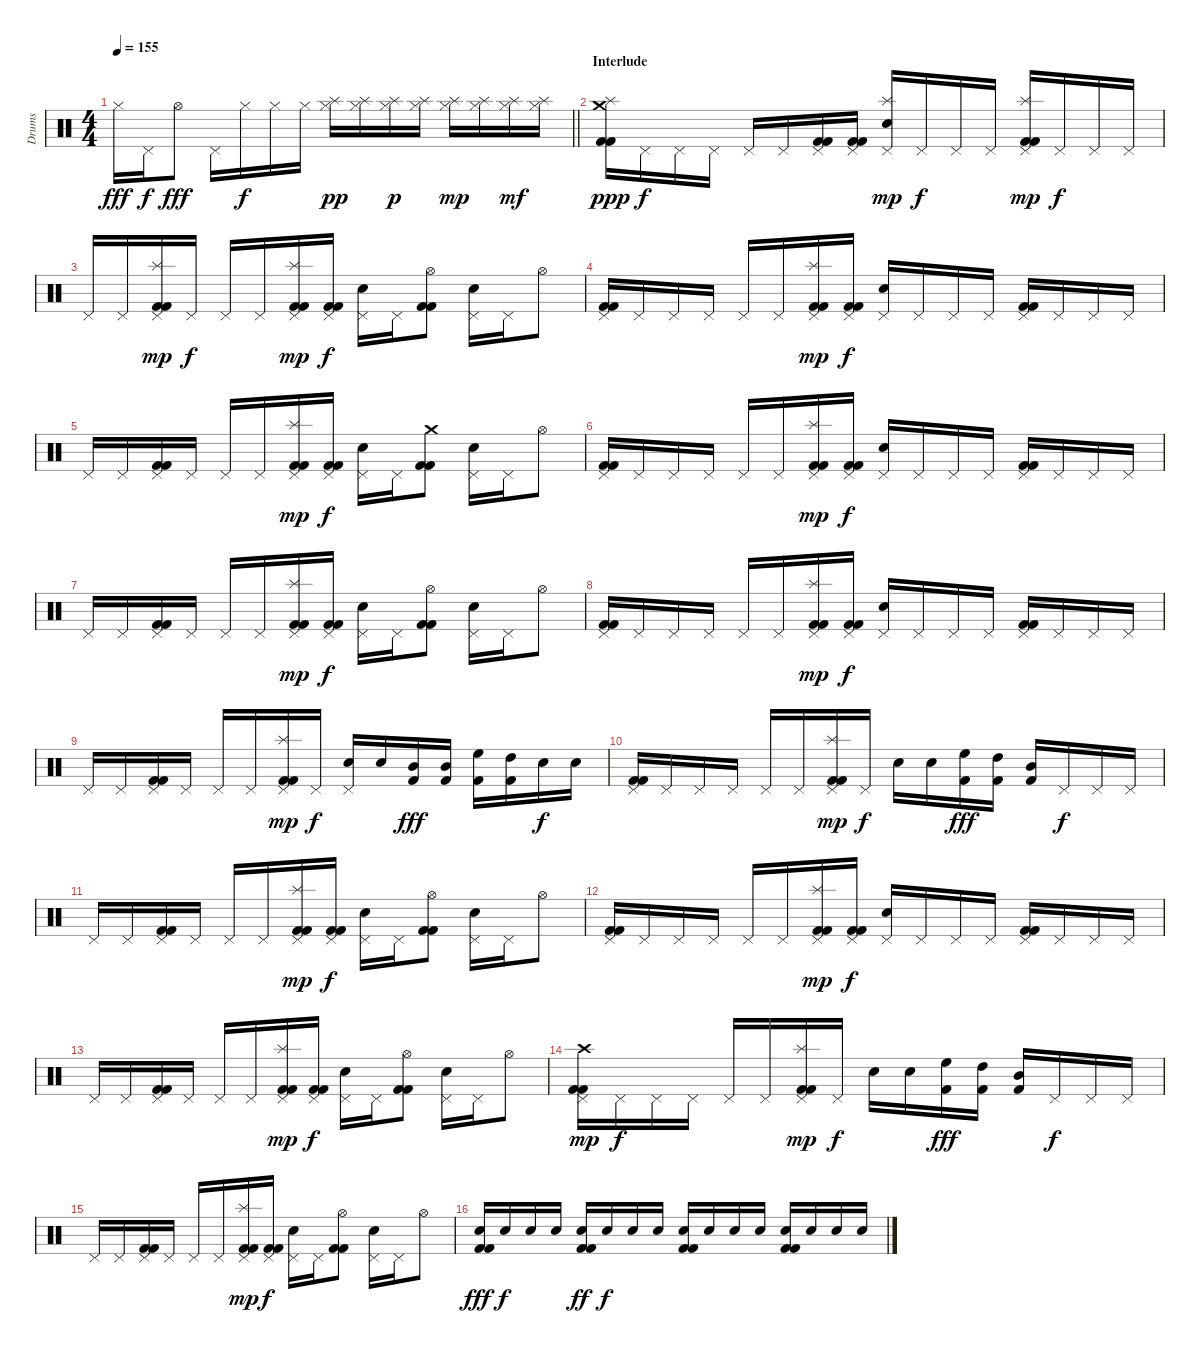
\track ("Drums" "Drums") {instrument percussion}
\staff {score}
\articulation defaults
\ts (4 4)
\tempo 155
\clef neutral
\barLineRight lightlight
\ks c "Hi-Hat (closed)".16{dy fff} "Pedal Hi-Hat (hit)".16{dy f} "Hi-Hat (open)".8{dy fff} "Pedal Hi-Hat (hit)".16 "Hi-Hat (closed)".16{dy f} "Hi-Hat (closed)".16 "Hi-Hat (closed)".16
("Hi-Hat (closed)" "Splash (hit)").16{dy pp} ("Hi-Hat (closed)" "Splash (hit)").16 ("Hi-Hat (closed)" "Splash (hit)").16{dy p} ("Hi-Hat (closed)" "Splash (hit)").16 ("Hi-Hat (closed)" "Splash (hit)").16{dy mp} ("Hi-Hat (closed)" "Splash (hit)").16 ("Hi-Hat (closed)" "Splash (hit)").16{dy mf} ("Hi-Hat (closed)" "Splash (hit)").16 |
\section ("" "Interlude")
("Crash medium (hit)" "Splash (hit)" "Kick (hit) 2" "Kick (hit) 2").16{dy ppp} "Pedal Hi-Hat (hit)".16{dy f} "Pedal Hi-Hat (hit)".16 "Pedal Hi-Hat (hit)".16 "Pedal Hi-Hat (hit)".16 "Pedal Hi-Hat (hit)".16 ("Pedal Hi-Hat (hit)" "Kick (hit) 2" "Kick (hit) 2").16 ("Pedal Hi-Hat (hit)" "Kick (hit) 2" "Kick (hit) 2").16 ("Pedal Hi-Hat (hit)" "Splash (hit)" "Electric Snare (hit)").16{dy mp} "Pedal Hi-Hat (hit)".16{dy f} "Pedal Hi-Hat (hit)".16 "Pedal Hi-Hat (hit)".16 ("Pedal Hi-Hat (hit)" "Splash (hit)" "Kick (hit) 2" "Kick (hit) 2").16{dy mp} "Pedal Hi-Hat (hit)".16{dy f} "Pedal Hi-Hat (hit)".16 "Pedal Hi-Hat (hit)".16 |
"Pedal Hi-Hat (hit)".16 "Pedal Hi-Hat (hit)".16 ("Pedal Hi-Hat (hit)" "Splash (hit)" "Kick (hit) 2" "Kick (hit) 2").16{dy mp} "Pedal Hi-Hat (hit)".16{dy f} "Pedal Hi-Hat (hit)".16 "Pedal Hi-Hat (hit)".16 ("Pedal Hi-Hat (hit)" "Splash (hit)" "Kick (hit) 2" "Kick (hit) 2").16{dy mp} ("Pedal Hi-Hat (hit)" "Kick (hit) 2" "Kick (hit) 2").16{dy f} ("Pedal Hi-Hat (hit)" "Electric Snare (hit)").16 "Pedal Hi-Hat (hit)".16 ("Hi-Hat (open)" "Kick (hit) 2" "Kick (hit) 2").8 ("Pedal Hi-Hat (hit)" "Electric Snare (hit)").16 "Pedal Hi-Hat (hit)".16 "Hi-Hat (open)".8 |
("Pedal Hi-Hat (hit)" "Kick (hit) 2" "Kick (hit) 2").16 "Pedal Hi-Hat (hit)".16 "Pedal Hi-Hat (hit)".16 "Pedal Hi-Hat (hit)".16 "Pedal Hi-Hat (hit)".16 "Pedal Hi-Hat (hit)".16 ("Pedal Hi-Hat (hit)" "Splash (hit)" "Kick (hit) 2" "Kick (hit) 2").16{dy mp} ("Pedal Hi-Hat (hit)" "Kick (hit) 2" "Kick (hit) 2").16{dy f} ("Pedal Hi-Hat (hit)" "Electric Snare (hit)").16 "Pedal Hi-Hat (hit)".16 "Pedal Hi-Hat (hit)".16 "Pedal Hi-Hat (hit)".16 ("Pedal Hi-Hat (hit)" "Kick (hit) 2" "Kick (hit) 2").16 "Pedal Hi-Hat (hit)".16 "Pedal Hi-Hat (hit)".16 "Pedal Hi-Hat (hit)".16 |
"Pedal Hi-Hat (hit)".16 "Pedal Hi-Hat (hit)".16 ("Pedal Hi-Hat (hit)" "Kick (hit) 2" "Kick (hit) 2").16 "Pedal Hi-Hat (hit)".16 "Pedal Hi-Hat (hit)".16 "Pedal Hi-Hat (hit)".16 ("Pedal Hi-Hat (hit)" "Splash (hit)" "Kick (hit) 2" "Kick (hit) 2").16{dy mp} ("Pedal Hi-Hat (hit)" "Kick (hit) 2" "Kick (hit) 2").16{dy f} ("Pedal Hi-Hat (hit)" "Electric Snare (hit)").16 "Pedal Hi-Hat (hit)".16 ("Crash medium (hit)" "Kick (hit) 2" "Kick (hit) 2").8 ("Pedal Hi-Hat (hit)" "Electric Snare (hit)").16 "Pedal Hi-Hat (hit)".16 "Hi-Hat (open)".8 |
("Pedal Hi-Hat (hit)" "Kick (hit) 2" "Kick (hit) 2").16 "Pedal Hi-Hat (hit)".16 "Pedal Hi-Hat (hit)".16 "Pedal Hi-Hat (hit)".16 "Pedal Hi-Hat (hit)".16 "Pedal Hi-Hat (hit)".16 ("Pedal Hi-Hat (hit)" "Splash (hit)" "Kick (hit) 2" "Kick (hit) 2").16{dy mp} ("Pedal Hi-Hat (hit)" "Kick (hit) 2" "Kick (hit) 2").16{dy f} ("Pedal Hi-Hat (hit)" "Electric Snare (hit)").16 "Pedal Hi-Hat (hit)".16 "Pedal Hi-Hat (hit)".16 "Pedal Hi-Hat (hit)".16 ("Pedal Hi-Hat (hit)" "Kick (hit) 2" "Kick (hit) 2").16 "Pedal Hi-Hat (hit)".16 "Pedal Hi-Hat (hit)".16 "Pedal Hi-Hat (hit)".16 |
"Pedal Hi-Hat (hit)".16 "Pedal Hi-Hat (hit)".16 ("Pedal Hi-Hat (hit)" "Kick (hit) 2" "Kick (hit) 2").16 "Pedal Hi-Hat (hit)".16 "Pedal Hi-Hat (hit)".16 "Pedal Hi-Hat (hit)".16 ("Pedal Hi-Hat (hit)" "Splash (hit)" "Kick (hit) 2" "Kick (hit) 2").16{dy mp} ("Pedal Hi-Hat (hit)" "Kick (hit) 2" "Kick (hit) 2").16{dy f} ("Pedal Hi-Hat (hit)" "Electric Snare (hit)").16 "Pedal Hi-Hat (hit)".16 ("Hi-Hat (open)" "Kick (hit) 2" "Kick (hit) 2").8 ("Pedal Hi-Hat (hit)" "Electric Snare (hit)").16 "Pedal Hi-Hat (hit)".16 "Hi-Hat (open)".8 |
("Pedal Hi-Hat (hit)" "Kick (hit) 2" "Kick (hit) 2").16 "Pedal Hi-Hat (hit)".16 "Pedal Hi-Hat (hit)".16 "Pedal Hi-Hat (hit)".16 "Pedal Hi-Hat (hit)".16 "Pedal Hi-Hat (hit)".16 ("Pedal Hi-Hat (hit)" "Splash (hit)" "Kick (hit) 2" "Kick (hit) 2").16{dy mp} ("Pedal Hi-Hat (hit)" "Kick (hit) 2" "Kick (hit) 2").16{dy f} ("Pedal Hi-Hat (hit)" "Electric Snare (hit)").16 "Pedal Hi-Hat (hit)".16 "Pedal Hi-Hat (hit)".16 "Pedal Hi-Hat (hit)".16 ("Pedal Hi-Hat (hit)" "Kick (hit) 2" "Kick (hit) 2").16 "Pedal Hi-Hat (hit)".16 "Pedal Hi-Hat (hit)".16 "Pedal Hi-Hat (hit)".16 |
"Pedal Hi-Hat (hit)".16 "Pedal Hi-Hat (hit)".16 ("Pedal Hi-Hat (hit)" "Kick (hit) 2" "Kick (hit) 2").16 "Pedal Hi-Hat (hit)".16 "Pedal Hi-Hat (hit)".16 "Pedal Hi-Hat (hit)".16 ("Pedal Hi-Hat (hit)" "Splash (hit)" "Kick (hit) 2" "Kick (hit) 2").16{dy mp} "Pedal Hi-Hat (hit)".16{dy f} ("Pedal Hi-Hat (hit)" "Electric Snare (hit)").16 "Electric Snare (hit)".16 ("Mid Tom (hit)" "Kick (hit) 2").16{dy fff} ("Mid Tom (hit)" "Kick (hit) 2").16 ("High Floor Tom (hit)" "Kick (hit) 2").16 ("High Tom (hit)" "Kick (hit) 2").16 "Electric Snare (hit)".16{dy f} "Electric Snare (hit)".16 |
("Pedal Hi-Hat (hit)" "Kick (hit) 2" "Kick (hit) 2").16 "Pedal Hi-Hat (hit)".16 "Pedal Hi-Hat (hit)".16 "Pedal Hi-Hat (hit)".16 "Pedal Hi-Hat (hit)".16 "Pedal Hi-Hat (hit)".16 ("Pedal Hi-Hat (hit)" "Splash (hit)" "Kick (hit) 2" "Kick (hit) 2").16{dy mp} "Pedal Hi-Hat (hit)".16{dy f} "Electric Snare (hit)".16 "Electric Snare (hit)".16 ("High Floor Tom (hit)" "Kick (hit) 2").16{dy fff} ("High Tom (hit)" "Kick (hit) 2").16 ("Mid Tom (hit)" "Kick (hit) 2").16 "Pedal Hi-Hat (hit)".16{dy f} "Pedal Hi-Hat (hit)".16 "Pedal Hi-Hat (hit)".16 |
"Pedal Hi-Hat (hit)".16 "Pedal Hi-Hat (hit)".16 ("Pedal Hi-Hat (hit)" "Kick (hit) 2" "Kick (hit) 2").16 "Pedal Hi-Hat (hit)".16 "Pedal Hi-Hat (hit)".16 "Pedal Hi-Hat (hit)".16 ("Pedal Hi-Hat (hit)" "Splash (hit)" "Kick (hit) 2" "Kick (hit) 2").16{dy mp} ("Pedal Hi-Hat (hit)" "Kick (hit) 2" "Kick (hit) 2").16{dy f} ("Pedal Hi-Hat (hit)" "Electric Snare (hit)").16 "Pedal Hi-Hat (hit)".16 ("Hi-Hat (open)" "Kick (hit) 2" "Kick (hit) 2").8 ("Pedal Hi-Hat (hit)" "Electric Snare (hit)").16 "Pedal Hi-Hat (hit)".16 "Hi-Hat (open)".8 |
("Pedal Hi-Hat (hit)" "Kick (hit) 2" "Kick (hit) 2").16 "Pedal Hi-Hat (hit)".16 "Pedal Hi-Hat (hit)".16 "Pedal Hi-Hat (hit)".16 "Pedal Hi-Hat (hit)".16 "Pedal Hi-Hat (hit)".16 ("Pedal Hi-Hat (hit)" "Splash (hit)" "Kick (hit) 2" "Kick (hit) 2").16{dy mp} ("Pedal Hi-Hat (hit)" "Kick (hit) 2" "Kick (hit) 2").16{dy f} ("Pedal Hi-Hat (hit)" "Electric Snare (hit)").16 "Pedal Hi-Hat (hit)".16 "Pedal Hi-Hat (hit)".16 "Pedal Hi-Hat (hit)".16 ("Pedal Hi-Hat (hit)" "Kick (hit) 2" "Kick (hit) 2").16 "Pedal Hi-Hat (hit)".16 "Pedal Hi-Hat (hit)".16 "Pedal Hi-Hat (hit)".16 |
"Pedal Hi-Hat (hit)".16 "Pedal Hi-Hat (hit)".16 ("Pedal Hi-Hat (hit)" "Kick (hit) 2" "Kick (hit) 2").16 "Pedal Hi-Hat (hit)".16 "Pedal Hi-Hat (hit)".16 "Pedal Hi-Hat (hit)".16 ("Pedal Hi-Hat (hit)" "Splash (hit)" "Kick (hit) 2" "Kick (hit) 2").16{dy mp} ("Pedal Hi-Hat (hit)" "Kick (hit) 2" "Kick (hit) 2").16{dy f} ("Pedal Hi-Hat (hit)" "Electric Snare (hit)").16 "Pedal Hi-Hat (hit)".16 ("Hi-Hat (open)" "Kick (hit) 2" "Kick (hit) 2").8 ("Pedal Hi-Hat (hit)" "Electric Snare (hit)").16 "Pedal Hi-Hat (hit)".16 "Hi-Hat (open)".8 |
("Pedal Hi-Hat (hit)" "Crash high (hit)" "Kick (hit) 2" "Kick (hit) 2").16{dy mp} "Pedal Hi-Hat (hit)".16{dy f} "Pedal Hi-Hat (hit)".16 "Pedal Hi-Hat (hit)".16 "Pedal Hi-Hat (hit)".16 "Pedal Hi-Hat (hit)".16 ("Pedal Hi-Hat (hit)" "Splash (hit)" "Kick (hit) 2" "Kick (hit) 2").16{dy mp} "Pedal Hi-Hat (hit)".16{dy f} "Electric Snare (hit)".16 "Electric Snare (hit)".16 ("High Floor Tom (hit)" "Kick (hit) 2").16{dy fff} ("High Tom (hit)" "Kick (hit) 2").16 ("Mid Tom (hit)" "Kick (hit) 2").16 "Pedal Hi-Hat (hit)".16{dy f} "Pedal Hi-Hat (hit)".16 "Pedal Hi-Hat (hit)".16 |
"Pedal Hi-Hat (hit)".16 "Pedal Hi-Hat (hit)".16 ("Pedal Hi-Hat (hit)" "Kick (hit) 2" "Kick (hit) 2").16 "Pedal Hi-Hat (hit)".16 "Pedal Hi-Hat (hit)".16 "Pedal Hi-Hat (hit)".16 ("Pedal Hi-Hat (hit)" "Splash (hit)" "Kick (hit) 2" "Kick (hit) 2").16{dy mp} ("Pedal Hi-Hat (hit)" "Kick (hit) 2" "Kick (hit) 2").16{dy f} ("Pedal Hi-Hat (hit)" "Electric Snare (hit)").16 "Pedal Hi-Hat (hit)".16 ("Hi-Hat (open)" "Kick (hit) 2" "Kick (hit) 2").8 ("Pedal Hi-Hat (hit)" "Electric Snare (hit)").16 "Pedal Hi-Hat (hit)".16 "Hi-Hat (open)".8 |
("Electric Snare (hit)" "Kick (hit) 2" "Kick (hit) 2").16{dy fff volume 8} "Electric Snare (hit)".16{dy f volume 16} "Electric Snare (hit)".16 "Electric Snare (hit)".16 ("Electric Snare (hit)" "Kick (hit) 2" "Kick (hit) 2").16{dy ff} "Electric Snare (hit)".16{dy f} "Electric Snare (hit)".16 "Electric Snare (hit)".16 ("Electric Snare (hit)" "Kick (hit) 2" "Kick (hit) 2").16 "Electric Snare (hit)".16 "Electric Snare (hit)".16 "Electric Snare (hit)".16 ("Electric Snare (hit)" "Kick (hit) 2" "Kick (hit) 2").16 "Electric Snare (hit)".16 "Electric Snare (hit)".16 "Electric Snare (hit)".16
